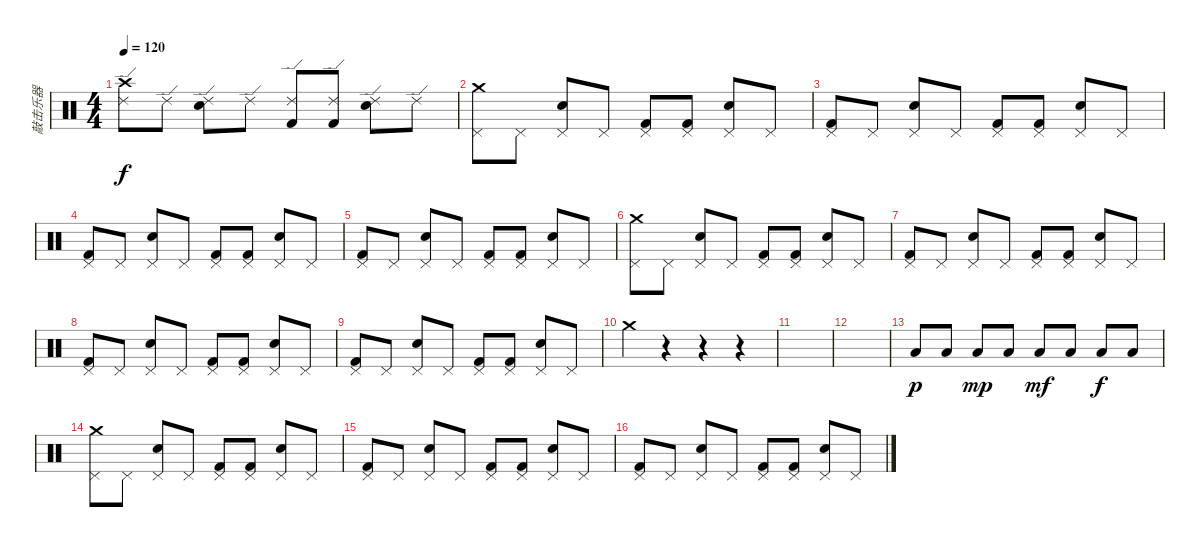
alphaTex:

\track ("敲击乐器" "敲击乐器") {instrument percussion}
\staff {score}
\articulation defaults
\ts (4 4)
\tempo 120
\clef neutral
\ks c
("Crash high (hit)" "Ride (edge) 2").8{dy f} "Ride (edge) 2".8 ("Electric Snare (hit)" "Ride (edge) 2").8 "Ride (edge) 2".8 ("Kick (hit) 2" "Ride (edge) 2").8 ("Kick (hit) 2" "Ride (edge) 2").8 ("Electric Snare (hit)" "Ride (edge) 2").8 "Ride (edge) 2".8 |
("Crash medium (hit)" "Pedal Hi-Hat (hit)").8 "Pedal Hi-Hat (hit)".8 ("Electric Snare (hit)" "Pedal Hi-Hat (hit)").8 "Pedal Hi-Hat (hit)".8 ("Kick (hit) 2" "Pedal Hi-Hat (hit)").8 ("Kick (hit) 2" "Pedal Hi-Hat (hit)").8 ("Electric Snare (hit)" "Pedal Hi-Hat (hit)").8 "Pedal Hi-Hat (hit)".8 |
("Kick (hit) 2" "Pedal Hi-Hat (hit)").8 "Pedal Hi-Hat (hit)".8 ("Electric Snare (hit)" "Pedal Hi-Hat (hit)").8 "Pedal Hi-Hat (hit)".8 ("Kick (hit) 2" "Pedal Hi-Hat (hit)").8 ("Kick (hit) 2" "Pedal Hi-Hat (hit)").8 ("Electric Snare (hit)" "Pedal Hi-Hat (hit)").8 "Pedal Hi-Hat (hit)".8 |
("Kick (hit) 2" "Pedal Hi-Hat (hit)").8 "Pedal Hi-Hat (hit)".8 ("Electric Snare (hit)" "Pedal Hi-Hat (hit)").8 "Pedal Hi-Hat (hit)".8 ("Kick (hit) 2" "Pedal Hi-Hat (hit)").8 ("Kick (hit) 2" "Pedal Hi-Hat (hit)").8 ("Electric Snare (hit)" "Pedal Hi-Hat (hit)").8 "Pedal Hi-Hat (hit)".8 |
("Kick (hit) 2" "Pedal Hi-Hat (hit)").8 "Pedal Hi-Hat (hit)".8 ("Electric Snare (hit)" "Pedal Hi-Hat (hit)").8 "Pedal Hi-Hat (hit)".8 ("Kick (hit) 2" "Pedal Hi-Hat (hit)").8 ("Kick (hit) 2" "Pedal Hi-Hat (hit)").8 ("Electric Snare (hit)" "Pedal Hi-Hat (hit)").8 "Pedal Hi-Hat (hit)".8 |
("Crash medium (hit)" "Pedal Hi-Hat (hit)").8 "Pedal Hi-Hat (hit)".8 ("Electric Snare (hit)" "Pedal Hi-Hat (hit)").8 "Pedal Hi-Hat (hit)".8 ("Kick (hit) 2" "Pedal Hi-Hat (hit)").8 ("Kick (hit) 2" "Pedal Hi-Hat (hit)").8 ("Electric Snare (hit)" "Pedal Hi-Hat (hit)").8 "Pedal Hi-Hat (hit)".8 |
("Kick (hit) 2" "Pedal Hi-Hat (hit)").8 "Pedal Hi-Hat (hit)".8 ("Electric Snare (hit)" "Pedal Hi-Hat (hit)").8 "Pedal Hi-Hat (hit)".8 ("Kick (hit) 2" "Pedal Hi-Hat (hit)").8 ("Kick (hit) 2" "Pedal Hi-Hat (hit)").8 ("Electric Snare (hit)" "Pedal Hi-Hat (hit)").8 "Pedal Hi-Hat (hit)".8 |
("Kick (hit) 2" "Pedal Hi-Hat (hit)").8 "Pedal Hi-Hat (hit)".8 ("Electric Snare (hit)" "Pedal Hi-Hat (hit)").8 "Pedal Hi-Hat (hit)".8 ("Kick (hit) 2" "Pedal Hi-Hat (hit)").8 ("Kick (hit) 2" "Pedal Hi-Hat (hit)").8 ("Electric Snare (hit)" "Pedal Hi-Hat (hit)").8 "Pedal Hi-Hat (hit)".8 |
("Kick (hit) 2" "Pedal Hi-Hat (hit)").8 "Pedal Hi-Hat (hit)".8 ("Electric Snare (hit)" "Pedal Hi-Hat (hit)").8 "Pedal Hi-Hat (hit)".8 ("Kick (hit) 2" "Pedal Hi-Hat (hit)").8 ("Kick (hit) 2" "Pedal Hi-Hat (hit)").8 ("Electric Snare (hit)" "Pedal Hi-Hat (hit)").8 "Pedal Hi-Hat (hit)".8 |
"Crash medium (hit)".4 r.4 r.4 r.4 |
|
|
"Low Floor Tom (hit)".8{dy p} "Low Floor Tom (hit)".8 "Low Floor Tom (hit)".8{dy mp} "Low Floor Tom (hit)".8 "Low Floor Tom (hit)".8{dy mf} "Low Floor Tom (hit)".8 "Low Floor Tom (hit)".8{dy f} "Low Floor Tom (hit)".8 |
("Crash medium (hit)" "Pedal Hi-Hat (hit)").8 "Pedal Hi-Hat (hit)".8 ("Electric Snare (hit)" "Pedal Hi-Hat (hit)").8 "Pedal Hi-Hat (hit)".8 ("Kick (hit) 2" "Pedal Hi-Hat (hit)").8 ("Kick (hit) 2" "Pedal Hi-Hat (hit)").8 ("Electric Snare (hit)" "Pedal Hi-Hat (hit)").8 "Pedal Hi-Hat (hit)".8 |
("Kick (hit) 2" "Pedal Hi-Hat (hit)").8 "Pedal Hi-Hat (hit)".8 ("Electric Snare (hit)" "Pedal Hi-Hat (hit)").8 "Pedal Hi-Hat (hit)".8 ("Kick (hit) 2" "Pedal Hi-Hat (hit)").8 ("Kick (hit) 2" "Pedal Hi-Hat (hit)").8 ("Electric Snare (hit)" "Pedal Hi-Hat (hit)").8 "Pedal Hi-Hat (hit)".8 |
("Kick (hit) 2" "Pedal Hi-Hat (hit)").8 "Pedal Hi-Hat (hit)".8 ("Electric Snare (hit)" "Pedal Hi-Hat (hit)").8 "Pedal Hi-Hat (hit)".8 ("Kick (hit) 2" "Pedal Hi-Hat (hit)").8 ("Kick (hit) 2" "Pedal Hi-Hat (hit)").8 ("Electric Snare (hit)" "Pedal Hi-Hat (hit)").8 "Pedal Hi-Hat (hit)".8
